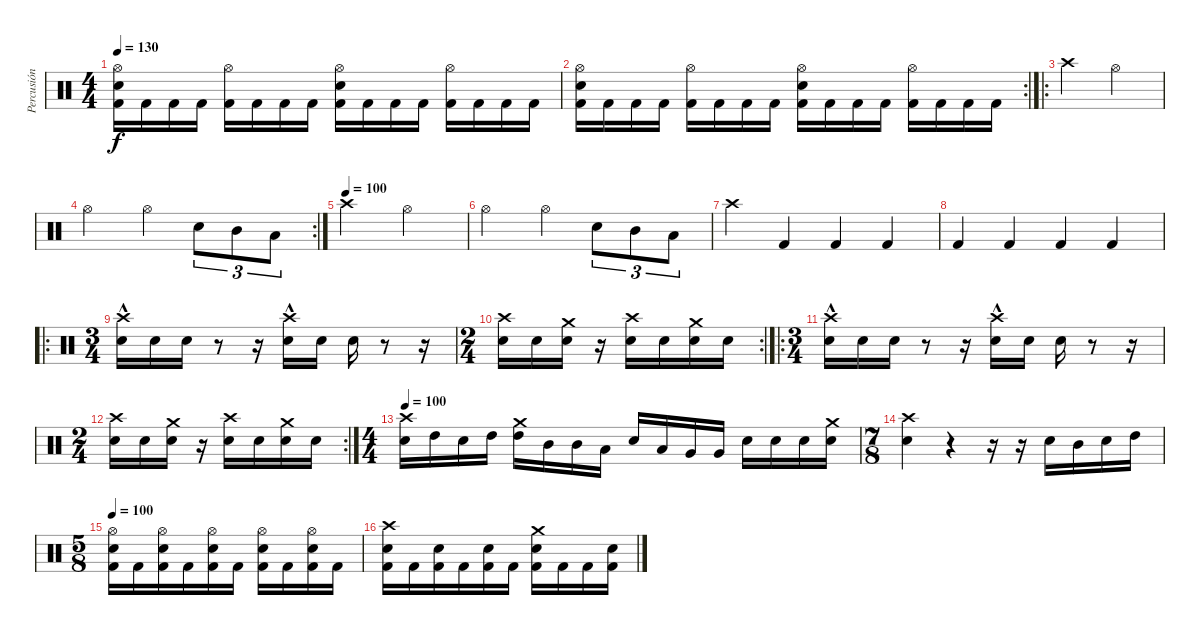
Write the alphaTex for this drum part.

\track ("Percusión" "Percusión") {instrument percussion}
\staff {score}
\articulation defaults
\ts (4 4)
\tempo 130
\clef neutral
\ks c
("Hi-Hat (open)" "Electric Snare (hit)" "Kick (hit) 2").16{dy f} "Kick (hit) 2".16 "Kick (hit) 2".16 "Kick (hit) 2".16 ("Hi-Hat (open)" "Kick (hit) 2").16 "Kick (hit) 2".16 "Kick (hit) 2".16 "Kick (hit) 2".16 ("Hi-Hat (open)" "Electric Snare (hit)" "Kick (hit) 2").16 "Kick (hit) 2".16 "Kick (hit) 2".16 "Kick (hit) 2".16 ("Hi-Hat (open)" "Kick (hit) 2").16 "Kick (hit) 2".16 "Kick (hit) 2".16 "Kick (hit) 2".16 |
\rc 2
("Hi-Hat (open)" "Electric Snare (hit)" "Kick (hit) 2").16 "Kick (hit) 2".16 "Kick (hit) 2".16 "Kick (hit) 2".16 ("Hi-Hat (open)" "Kick (hit) 2").16 "Kick (hit) 2".16 "Kick (hit) 2".16 "Kick (hit) 2".16 ("Hi-Hat (open)" "Electric Snare (hit)" "Kick (hit) 2").16 "Kick (hit) 2".16 "Kick (hit) 2".16 "Kick (hit) 2".16 ("Hi-Hat (open)" "Kick (hit) 2").16 "Kick (hit) 2".16 "Kick (hit) 2".16 "Kick (hit) 2".16 |
\ro "Crash high (hit)".2 "Hi-Hat (open)".2
|
\rc 2 "Hi-Hat (open)".2 "Hi-Hat (open)".4 "Electric Snare (hit)".8{tu (3 2)} "Mid Tom (hit)".8{tu (3 2)} "Low Tom (hit)".8{tu (3 2)}
|
\tempo (100)
"Crash high (hit)".2 "Hi-Hat (open)".2 |
"Hi-Hat (open)".2 "Hi-Hat (open)".4 "Electric Snare (hit)".8{tu (3 2)} "Mid Tom (hit)".8{tu (3 2)} "Low Tom (hit)".8{tu (3 2)} |
"Crash high (hit)".4 "Kick (hit) 2".4 "Kick (hit) 2".4 "Kick (hit) 2".4 |
"Kick (hit) 2".4 "Kick (hit) 2".4 "Kick (hit) 2".4 "Kick (hit) 2".4 |
\ro
\ts (3 4)
("Crash high (hit)"{hac} "Electric Snare (hit)").16 "Electric Snare (hit)".16 "Electric Snare (hit)".16 r.8 r.16 ("Crash high (hit)"{hac} "Electric Snare (hit)").16 "Electric Snare (hit)".16 "Electric Snare (hit)".16 r.8 r.16 |
\rc 2
\ts (2 4)
("Crash high (hit)" "Electric Snare (hit)").16 "Electric Snare (hit)".16 ("Crash medium (hit)" "Electric Snare (hit)").16 r.16 ("Crash high (hit)" "Electric Snare (hit)").16 "Electric Snare (hit)".16 ("Crash medium (hit)" "Electric Snare (hit)").16 "Electric Snare (hit)".16 |
\ro
\ts (3 4)
("Crash high (hit)"{hac} "Electric Snare (hit)").16 "Electric Snare (hit)".16 "Electric Snare (hit)".16 r.8 r.16 ("Crash high (hit)"{hac} "Electric Snare (hit)").16 "Electric Snare (hit)".16 "Electric Snare (hit)".16 r.8 r.16 |
\rc 2
\ts (2 4)
("Crash high (hit)" "Electric Snare (hit)").16 "Electric Snare (hit)".16 ("Crash medium (hit)" "Electric Snare (hit)").16 r.16 ("Crash high (hit)" "Electric Snare (hit)").16 "Electric Snare (hit)".16 ("Crash medium (hit)" "Electric Snare (hit)").16 "Electric Snare (hit)".16 |
\ts (4 4)
\tempo 100
("Crash high (hit)" "Electric Snare (hit)").16 "High Tom (hit)".16 "Electric Snare (hit)".16 "High Tom (hit)".16 ("Crash medium (hit)" "High Tom (hit)").16 "Mid Tom (hit)".16 "Mid Tom (hit)".16 "Low Tom (hit)".16 "Electric Snare (hit)".16 "Low Tom (hit)".16 "Very Low Tom (hit)".16 "Very Low Tom (hit)".16 "Electric Snare (hit)".16 "Electric Snare (hit)".16 "Electric Snare (hit)".16 ("Crash medium (hit)" "Electric Snare (hit)").16 |
\ts (7 8)
("Crash high (hit)" "Electric Snare (hit)").4 r.4 r.16 r.16 "Electric Snare (hit)".16 "Mid Tom (hit)".16 "Electric Snare (hit)".16 "High Tom (hit)".16 |
\ts (5 8)
\tempo 100
("Hi-Hat (open)" "Electric Snare (hit)" "Kick (hit) 2").16 "Kick (hit) 2".16 ("Hi-Hat (open)" "Electric Snare (hit)" "Kick (hit) 2").16 "Kick (hit) 2".16 ("Hi-Hat (open)" "Electric Snare (hit)" "Kick (hit) 2").16 "Kick (hit) 2".16 ("Hi-Hat (open)" "Electric Snare (hit)" "Kick (hit) 2").16 "Kick (hit) 2".16 ("Hi-Hat (open)" "Electric Snare (hit)" "Kick (hit) 2").16 "Kick (hit) 2".16 |
("Crash high (hit)" "Electric Snare (hit)" "Kick (hit) 2").16 "Kick (hit) 2".16 ("Electric Snare (hit)" "Kick (hit) 2").16 "Kick (hit) 2".16 ("Electric Snare (hit)" "Kick (hit) 2").16 "Kick (hit) 2".16 ("Crash medium (hit)" "Electric Snare (hit)" "Kick (hit) 2").16 "Kick (hit) 2".16 "Kick (hit) 2".16 ("Electric Snare (hit)" "Kick (hit) 2").16
